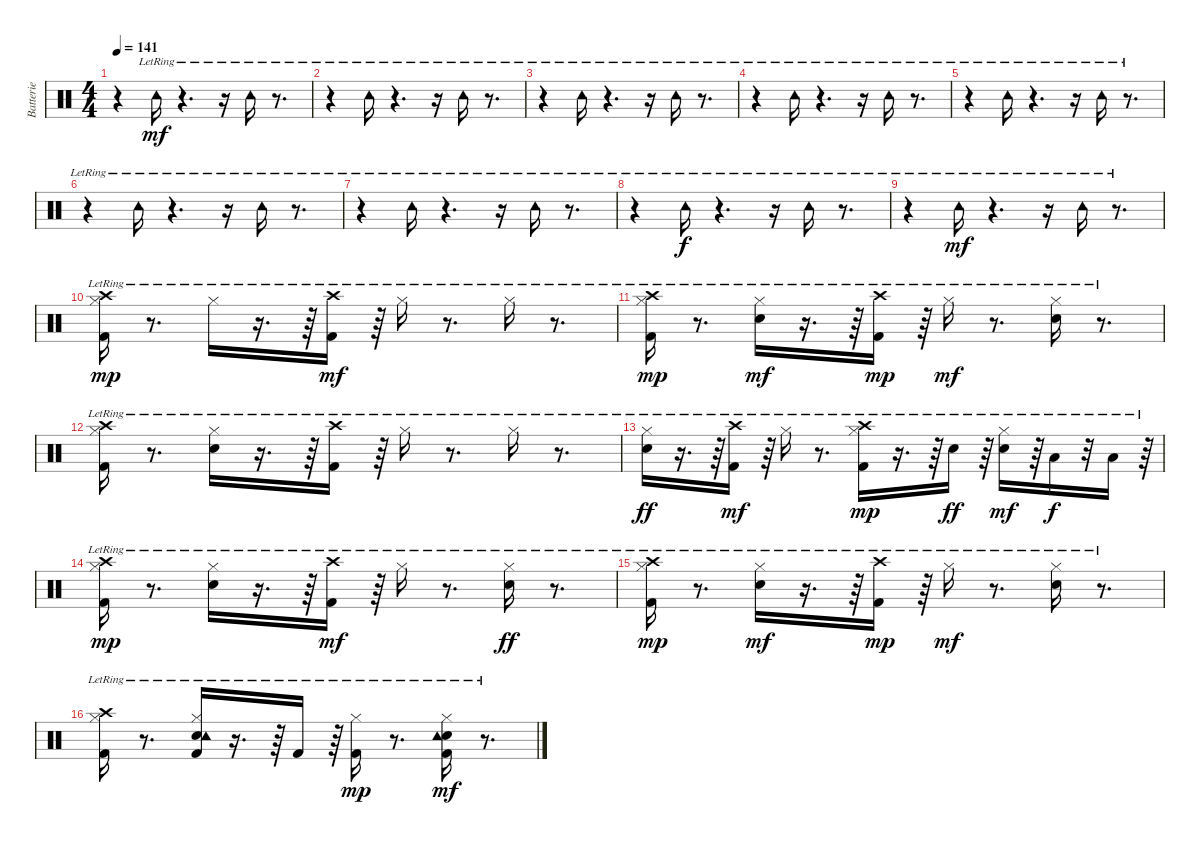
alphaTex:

\track ("Batterie" "Batterie") {instrument percussion}
\staff {score}
\articulation defaults
\ts (4 4)
\tempo 141
\clef neutral
\ks c
r.4{dy f} "Tambourine (hit)"{lr}.16{dy mf} r.4{d} r.16 "Tambourine (hit)"{lr}.16 r.8{d} |
r.4 "Tambourine (hit)"{lr}.16 r.4{d} r.16 "Tambourine (hit)"{lr}.16 r.8{d} |
r.4 "Tambourine (hit)"{lr}.16 r.4{d} r.16 "Tambourine (hit)"{lr}.16 r.8{d} |
r.4 "Tambourine (hit)"{lr}.16 r.4{d} r.16 "Tambourine (hit)"{lr}.16 r.8{d} |
r.4 "Tambourine (hit)"{lr}.16 r.4{d} r.16 "Tambourine (hit)"{lr}.16 r.8{d} |
r.4 "Tambourine (hit)"{lr}.16 r.4{d} r.16 "Tambourine (hit)"{lr}.16 r.8{d} |
r.4 "Tambourine (hit)"{lr}.16 r.4{d} r.16 "Tambourine (hit)"{lr}.16 r.8{d} |
r.4 "Tambourine (hit)"{lr}.16{dy f} r.4{d} r.16 "Tambourine (hit)"{lr}.16 r.8{d} |
r.4 "Tambourine (hit)"{lr}.16{dy mf} r.4{d} r.16 "Tambourine (hit)"{lr}.16 r.8{d} |
("Hi-Hat (closed)"{lr} "Crash high (hit)"{lr} "Kick (hit) 2"{lr}).16{dy mp} r.8{d} "Hi-Hat (closed)"{lr}.16 r.16{d} r.64 ("Crash high (hit)"{lr} "Kick (hit) 2"{lr}).16{dy mf} r.64 "Hi-Hat (closed)"{lr}.16 r.8{d} "Hi-Hat (closed)"{lr}.16 r.8{d} |
("Hi-Hat (closed)"{lr} "Crash high (hit)"{lr} "Kick (hit) 2"{lr}).16{dy mp} r.8{d} ("Hi-Hat (closed)"{lr} "Snare (hit) 2"{lr}).16{dy mf} r.16{d} r.64 ("Crash high (hit)"{lr} "Kick (hit) 2"{lr}).16{dy mp} r.64 "Hi-Hat (closed)"{lr}.16{dy mf} r.8{d} ("Hi-Hat (closed)"{lr} "Snare (hit) 2"{lr}).16 r.8{d} |
("Hi-Hat (closed)"{lr} "Crash high (hit)"{lr} "Kick (hit) 2"{lr}).16 r.8{d} ("Hi-Hat (closed)"{lr} "Snare (hit) 2"{lr}).16 r.16{d} r.64 ("Crash high (hit)"{lr} "Kick (hit) 2"{lr}).16 r.64 "Hi-Hat (closed)"{lr}.16 r.8{d} "Hi-Hat (closed)"{lr}.16 r.8{d} |
("Hi-Hat (closed)"{lr} "Snare (hit) 2"{lr}).16{dy ff} r.16{d} r.64 ("Crash high (hit)"{lr} "Kick (hit) 2"{lr}).16{dy mf} r.64 "Hi-Hat (closed)"{lr}.16 r.8{d} ("Hi-Hat (closed)"{lr} "Crash high (hit)"{lr} "Kick (hit) 2"{lr}).16{dy mp} r.16{d} r.64 "Snare (hit) 2"{lr}.16{dy ff} r.64 ("Hi-Hat (closed)"{lr} "Snare (hit) 2"{lr}).16{dy mf} r.64 "Low Tom (hit)"{lr}.16{dy f} r.32 "Low Floor Tom (hit)"{lr}.16 r.64 |
("Hi-Hat (closed)"{lr} "Crash high (hit)"{lr} "Kick (hit) 2"{lr}).16{dy mp} r.8{d} ("Hi-Hat (closed)"{lr} "Snare (hit) 2"{lr}).16 r.16{d} r.64 ("Crash high (hit)"{lr} "Kick (hit) 2"{lr}).16{dy mf} r.64 "Hi-Hat (closed)"{lr}.16 r.8{d} ("Hi-Hat (closed)"{lr} "Snare (hit) 2"{lr}).16{dy ff} r.8{d} |
("Hi-Hat (closed)"{lr} "Crash high (hit)"{lr} "Kick (hit) 2"{lr}).16{dy mp} r.8{d} ("Hi-Hat (closed)"{lr} "Snare (hit) 2"{lr}).16{dy mf} r.16{d} r.64 ("Crash high (hit)"{lr} "Kick (hit) 2"{lr}).16{dy mp} r.64 "Hi-Hat (closed)"{lr}.16{dy mf} r.8{d} ("Hi-Hat (closed)"{lr} "Snare (hit) 2"{lr}).16 r.8{d} |
("Hi-Hat (closed)"{lr} "Crash high (hit)"{lr} "Kick (hit) 2"{lr}).16 r.8{d} ("Hi-Hat (closed)"{lr} "Snare (hit) 2"{lr} "Kick (hit) 2"{lr} "Tambourine (hit)"{lr}).16 r.16{d} r.64 "Kick (hit) 2"{lr}.16 r.64 ("Hi-Hat (closed)"{lr} "Kick (hit) 2"{lr}).16{dy mp} r.8{d} ("Hi-Hat (closed)"{lr} "Snare (hit) 2"{lr} "Kick (hit) 2"{lr} "Tambourine (hit)"{lr}).16{dy mf} r.8{d}
